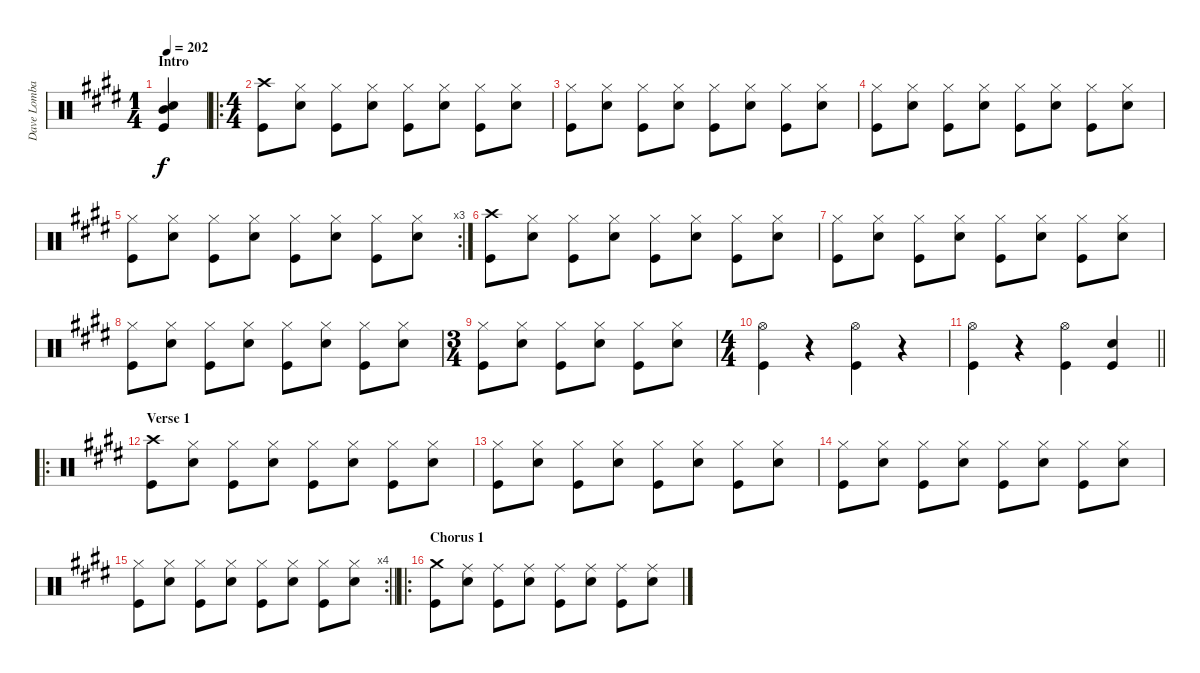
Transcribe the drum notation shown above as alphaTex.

\track ("Dave Lombardo" "Dave Lomba") {instrument percussion}
\staff {score}
\articulation defaults
\ts (1 4)
\section ("" "Intro")
\tempo 202
\clef neutral
\ks e
("Mid Tom (hit)" "Snare (hit) 2" "Kick (hit)").4{dy f} |
\ro
\ts (4 4)
("Crash high (hit)" "Kick (hit)").8 ("Hi-Hat (closed)" "Snare (hit) 2").8 ("Hi-Hat (closed)" "Kick (hit)").8 ("Hi-Hat (closed)" "Snare (hit) 2").8 ("Hi-Hat (closed)" "Kick (hit)").8 ("Hi-Hat (closed)" "Snare (hit) 2").8 ("Hi-Hat (closed)" "Kick (hit)").8 ("Hi-Hat (closed)" "Snare (hit) 2").8 |
("Hi-Hat (closed)" "Kick (hit)").8 ("Hi-Hat (closed)" "Snare (hit) 2").8 ("Hi-Hat (closed)" "Kick (hit)").8 ("Hi-Hat (closed)" "Snare (hit) 2").8 ("Hi-Hat (closed)" "Kick (hit)").8 ("Hi-Hat (closed)" "Snare (hit) 2").8 ("Hi-Hat (closed)" "Kick (hit)").8 ("Hi-Hat (closed)" "Snare (hit) 2").8 |
("Hi-Hat (closed)" "Kick (hit)").8 ("Hi-Hat (closed)" "Snare (hit) 2").8 ("Hi-Hat (closed)" "Kick (hit)").8 ("Hi-Hat (closed)" "Snare (hit) 2").8 ("Hi-Hat (closed)" "Kick (hit)").8 ("Hi-Hat (closed)" "Snare (hit) 2").8 ("Hi-Hat (closed)" "Kick (hit)").8 ("Hi-Hat (closed)" "Snare (hit) 2").8 |
\rc 3
("Hi-Hat (closed)" "Kick (hit)").8 ("Hi-Hat (closed)" "Snare (hit) 2").8 ("Hi-Hat (closed)" "Kick (hit)").8 ("Hi-Hat (closed)" "Snare (hit) 2").8 ("Hi-Hat (closed)" "Kick (hit)").8 ("Hi-Hat (closed)" "Snare (hit) 2").8 ("Hi-Hat (closed)" "Kick (hit)").8 ("Hi-Hat (closed)" "Snare (hit) 2").8 |
("Crash high (hit)" "Kick (hit)").8 ("Hi-Hat (closed)" "Snare (hit) 2").8 ("Hi-Hat (closed)" "Kick (hit)").8 ("Hi-Hat (closed)" "Snare (hit) 2").8 ("Hi-Hat (closed)" "Kick (hit)").8 ("Hi-Hat (closed)" "Snare (hit) 2").8 ("Hi-Hat (closed)" "Kick (hit)").8 ("Hi-Hat (closed)" "Snare (hit) 2").8 |
("Hi-Hat (closed)" "Kick (hit)").8 ("Hi-Hat (closed)" "Snare (hit) 2").8 ("Hi-Hat (closed)" "Kick (hit)").8 ("Hi-Hat (closed)" "Snare (hit) 2").8 ("Hi-Hat (closed)" "Kick (hit)").8 ("Hi-Hat (closed)" "Snare (hit) 2").8 ("Hi-Hat (closed)" "Kick (hit)").8 ("Hi-Hat (closed)" "Snare (hit) 2").8 |
("Hi-Hat (closed)" "Kick (hit)").8 ("Hi-Hat (closed)" "Snare (hit) 2").8 ("Hi-Hat (closed)" "Kick (hit)").8 ("Hi-Hat (closed)" "Snare (hit) 2").8 ("Hi-Hat (closed)" "Kick (hit)").8 ("Hi-Hat (closed)" "Snare (hit) 2").8 ("Hi-Hat (closed)" "Kick (hit)").8 ("Hi-Hat (closed)" "Snare (hit) 2").8 |
\ts (3 4)
("Hi-Hat (closed)" "Kick (hit)").8 ("Hi-Hat (closed)" "Snare (hit) 2").8 ("Hi-Hat (closed)" "Kick (hit)").8 ("Hi-Hat (closed)" "Snare (hit) 2").8 ("Hi-Hat (closed)" "Kick (hit)").8 ("Hi-Hat (closed)" "Snare (hit) 2").8 |
\ts (4 4)
("Hi-Hat (open)" "Kick (hit)").4 r.4 ("Hi-Hat (open)" "Kick (hit)").4 r.4 |
\barLineRight lightlight
("Hi-Hat (open)" "Kick (hit)").4 r.4 ("Hi-Hat (open)" "Kick (hit)").4 ("Snare (hit) 2" "Kick (hit)").4 |
\ro
\section ("" "Verse 1")
("Crash high (hit)" "Kick (hit)").8 ("Hi-Hat (closed)" "Snare (hit) 2").8 ("Hi-Hat (closed)" "Kick (hit)").8 ("Hi-Hat (closed)" "Snare (hit) 2").8 ("Hi-Hat (closed)" "Kick (hit)").8 ("Hi-Hat (closed)" "Snare (hit) 2").8 ("Hi-Hat (closed)" "Kick (hit)").8 ("Hi-Hat (closed)" "Snare (hit) 2").8 |
("Hi-Hat (closed)" "Kick (hit)").8 ("Hi-Hat (closed)" "Snare (hit) 2").8 ("Hi-Hat (closed)" "Kick (hit)").8 ("Hi-Hat (closed)" "Snare (hit) 2").8 ("Hi-Hat (closed)" "Kick (hit)").8 ("Hi-Hat (closed)" "Snare (hit) 2").8 ("Hi-Hat (closed)" "Kick (hit)").8 ("Hi-Hat (closed)" "Snare (hit) 2").8 |
("Hi-Hat (closed)" "Kick (hit)").8 ("Hi-Hat (closed)" "Snare (hit) 2").8 ("Hi-Hat (closed)" "Kick (hit)").8 ("Hi-Hat (closed)" "Snare (hit) 2").8 ("Hi-Hat (closed)" "Kick (hit)").8 ("Hi-Hat (closed)" "Snare (hit) 2").8 ("Hi-Hat (closed)" "Kick (hit)").8 ("Hi-Hat (closed)" "Snare (hit) 2").8 |
\rc 4
\barLineRight lightlight
("Hi-Hat (closed)" "Kick (hit)").8 ("Hi-Hat (closed)" "Snare (hit) 2").8 ("Hi-Hat (closed)" "Kick (hit)").8 ("Hi-Hat (closed)" "Snare (hit) 2").8 ("Hi-Hat (closed)" "Kick (hit)").8 ("Hi-Hat (closed)" "Snare (hit) 2").8 ("Hi-Hat (closed)" "Kick (hit)").8 ("Hi-Hat (closed)" "Snare (hit) 2").8 |
\ro
\section ("" "Chorus 1")
("Crash medium (hit)" "Kick (hit)").8 ("Ride (middle)" "Snare (hit) 2").8 ("Ride (middle)" "Kick (hit)").8 ("Ride (middle)" "Snare (hit) 2").8 ("Ride (middle)" "Kick (hit)").8 ("Ride (middle)" "Snare (hit) 2").8 ("Ride (middle)" "Kick (hit)").8 ("Ride (middle)" "Snare (hit) 2").8
